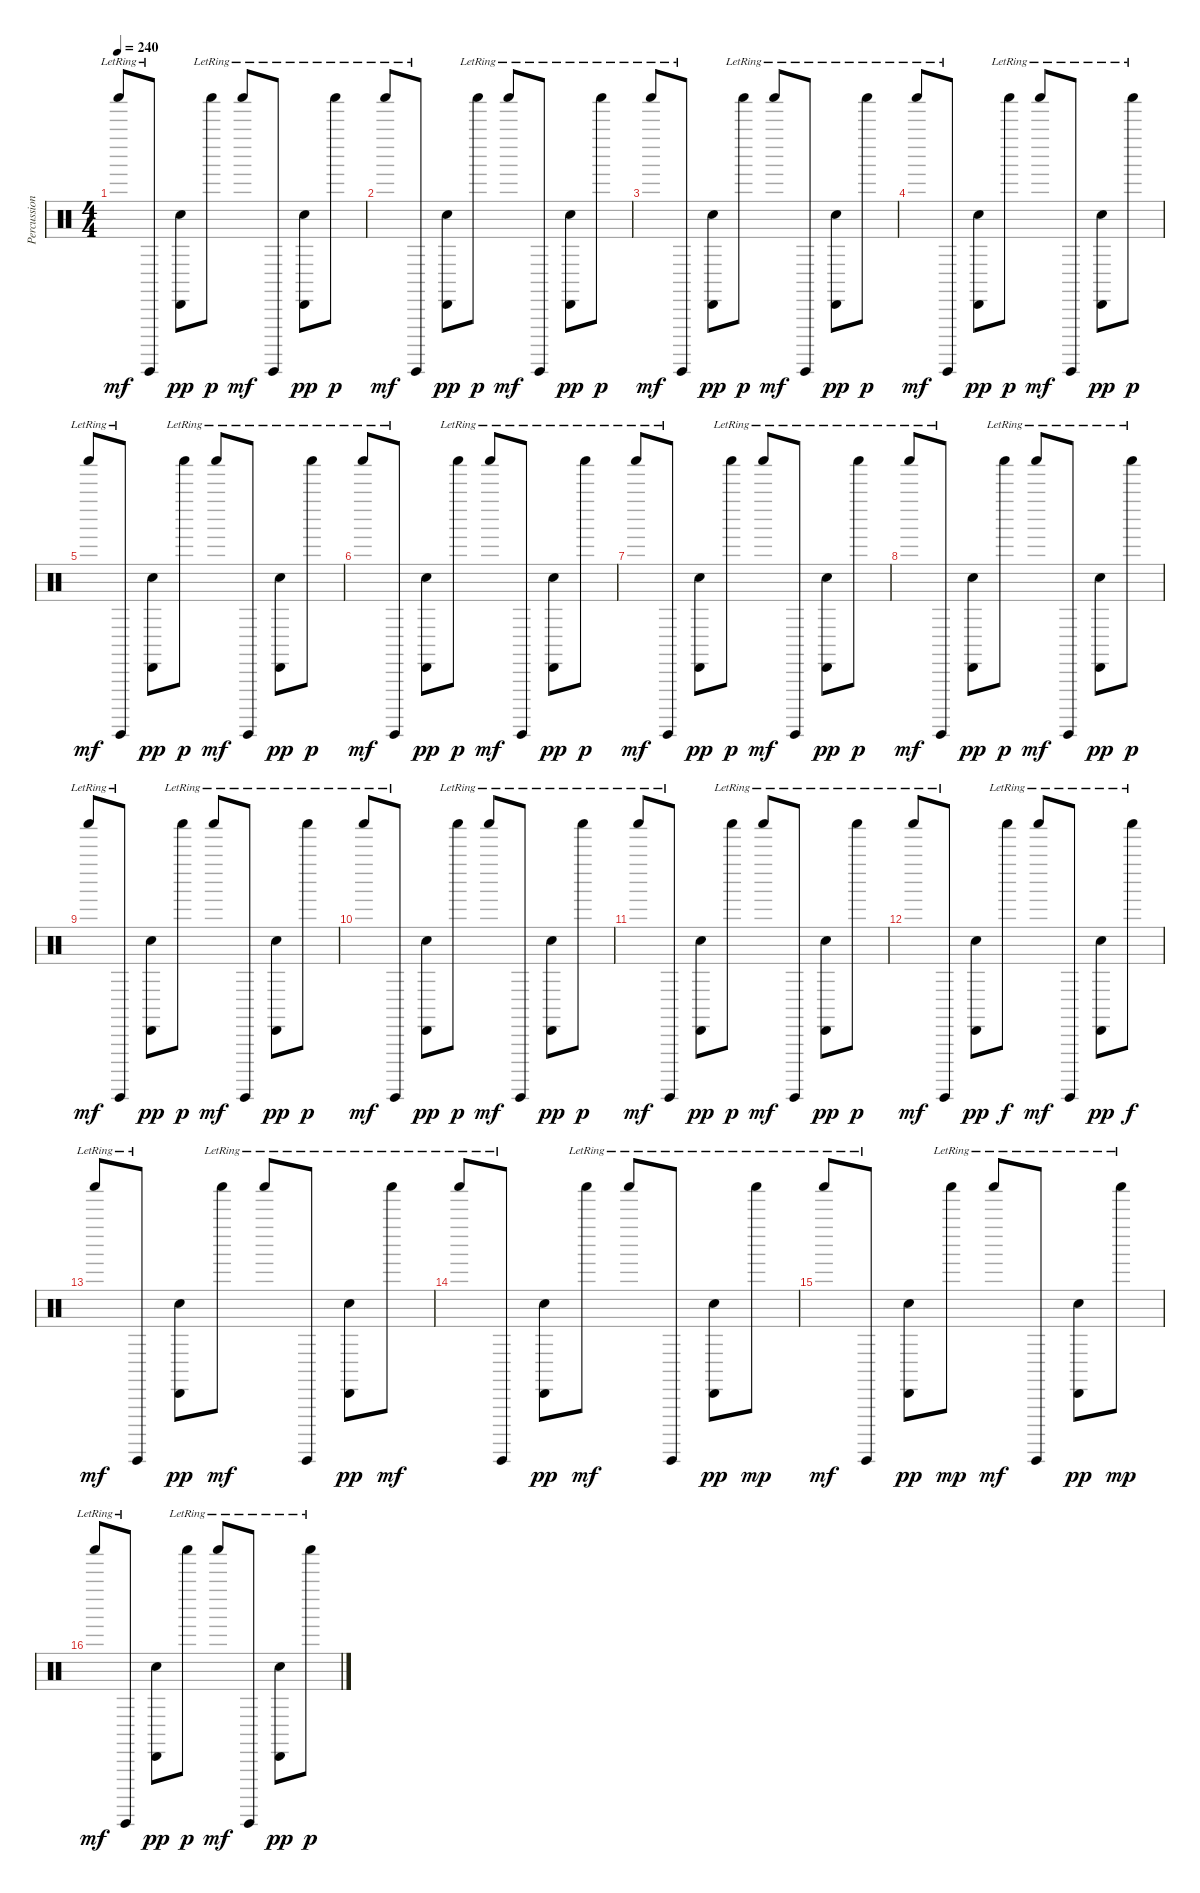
\track ("Percussions" "Percussion") {instrument percussion}
\staff {score}
\articulation defaults
\ts (4 4)
\tempo 240
\clef neutral
\ks c "Shaker (hit)"{lr}.8{dy mf} "Guiro (hit)"{lr}.8
("Cabasa (hit)" "Snare (hit) 2").8{dy pp} "Shaker (hit)"{lr}.8{dy p} "Shaker (hit)"{lr}.8{dy mf} "Guiro (hit)"{lr}.8 ("Cabasa (hit)"{lr} "Snare (hit) 2").8{dy pp} "Shaker (hit)"{lr}.8{dy p} |
"Shaker (hit)"{lr}.8{dy mf} "Guiro (hit)"{lr}.8 ("Cabasa (hit)" "Snare (hit) 2").8{dy pp} "Shaker (hit)"{lr}.8{dy p} "Shaker (hit)"{lr}.8{dy mf} "Guiro (hit)"{lr}.8 ("Cabasa (hit)"{lr} "Snare (hit) 2").8{dy pp} "Shaker (hit)"{lr}.8{dy p} |
"Shaker (hit)"{lr}.8{dy mf} "Guiro (hit)"{lr}.8 ("Cabasa (hit)" "Snare (hit) 2").8{dy pp} "Shaker (hit)"{lr}.8{dy p} "Shaker (hit)"{lr}.8{dy mf} "Guiro (hit)"{lr}.8 ("Cabasa (hit)"{lr} "Snare (hit) 2").8{dy pp} "Shaker (hit)"{lr}.8{dy p} |
"Shaker (hit)"{lr}.8{dy mf} "Guiro (hit)"{lr}.8 ("Cabasa (hit)" "Snare (hit) 2").8{dy pp} "Shaker (hit)"{lr}.8{dy p} "Shaker (hit)"{lr}.8{dy mf} "Guiro (hit)"{lr}.8 ("Cabasa (hit)"{lr} "Snare (hit) 2").8{dy pp} "Shaker (hit)"{lr}.8{dy p} |
"Shaker (hit)"{lr}.8{dy mf} "Guiro (hit)"{lr}.8 ("Cabasa (hit)" "Snare (hit) 2").8{dy pp} "Shaker (hit)"{lr}.8{dy p} "Shaker (hit)"{lr}.8{dy mf} "Guiro (hit)"{lr}.8 ("Cabasa (hit)"{lr} "Snare (hit) 2").8{dy pp} "Shaker (hit)"{lr}.8{dy p} |
"Shaker (hit)"{lr}.8{dy mf} "Guiro (hit)"{lr}.8 ("Cabasa (hit)" "Snare (hit) 2").8{dy pp} "Shaker (hit)"{lr}.8{dy p} "Shaker (hit)"{lr}.8{dy mf} "Guiro (hit)"{lr}.8 ("Cabasa (hit)"{lr} "Snare (hit) 2").8{dy pp} "Shaker (hit)"{lr}.8{dy p} |
"Shaker (hit)"{lr}.8{dy mf} "Guiro (hit)"{lr}.8 ("Cabasa (hit)" "Snare (hit) 2").8{dy pp} "Shaker (hit)"{lr}.8{dy p} "Shaker (hit)"{lr}.8{dy mf} "Guiro (hit)"{lr}.8 ("Cabasa (hit)"{lr} "Snare (hit) 2").8{dy pp} "Shaker (hit)"{lr}.8{dy p} |
"Shaker (hit)"{lr}.8{dy mf} "Guiro (hit)"{lr}.8 ("Cabasa (hit)" "Snare (hit) 2").8{dy pp} "Shaker (hit)"{lr}.8{dy p} "Shaker (hit)"{lr}.8{dy mf} "Guiro (hit)"{lr}.8 ("Cabasa (hit)"{lr} "Snare (hit) 2").8{dy pp} "Shaker (hit)"{lr}.8{dy p} |
"Shaker (hit)"{lr}.8{dy mf} "Guiro (hit)"{lr}.8 ("Cabasa (hit)" "Snare (hit) 2").8{dy pp} "Shaker (hit)"{lr}.8{dy p} "Shaker (hit)"{lr}.8{dy mf} "Guiro (hit)"{lr}.8 ("Cabasa (hit)"{lr} "Snare (hit) 2").8{dy pp} "Shaker (hit)"{lr}.8{dy p} |
"Shaker (hit)"{lr}.8{dy mf} "Guiro (hit)"{lr}.8 ("Cabasa (hit)" "Snare (hit) 2").8{dy pp} "Shaker (hit)"{lr}.8{dy p} "Shaker (hit)"{lr}.8{dy mf} "Guiro (hit)"{lr}.8 ("Cabasa (hit)"{lr} "Snare (hit) 2").8{dy pp} "Shaker (hit)"{lr}.8{dy p} |
"Shaker (hit)"{lr}.8{dy mf} "Guiro (hit)"{lr}.8 ("Cabasa (hit)" "Snare (hit) 2").8{dy pp} "Shaker (hit)"{lr}.8{dy p} "Shaker (hit)"{lr}.8{dy mf} "Guiro (hit)"{lr}.8 ("Cabasa (hit)"{lr} "Snare (hit) 2").8{dy pp} "Shaker (hit)"{lr}.8{dy p} |
"Shaker (hit)"{lr}.8{dy mf} "Guiro (hit)"{lr}.8 ("Cabasa (hit)" "Snare (hit) 2").8{dy pp} "Shaker (hit)"{lr}.8{dy f} "Shaker (hit)"{lr}.8{dy mf} "Guiro (hit)"{lr}.8 ("Cabasa (hit)"{lr} "Snare (hit) 2").8{dy pp} "Shaker (hit)"{lr}.8{dy f} |
"Shaker (hit)"{lr}.8{dy mf} "Guiro (hit)"{lr}.8 ("Cabasa (hit)" "Snare (hit) 2").8{dy pp} "Shaker (hit)"{lr}.8{dy mf} "Shaker (hit)"{lr}.8 "Guiro (hit)"{lr}.8 ("Cabasa (hit)"{lr} "Snare (hit) 2").8{dy pp} "Shaker (hit)"{lr}.8{dy mf} |
"Shaker (hit)"{lr}.8 "Guiro (hit)"{lr}.8 ("Cabasa (hit)" "Snare (hit) 2").8{dy pp} "Shaker (hit)"{lr}.8{dy mf} "Shaker (hit)"{lr}.8 "Guiro (hit)"{lr}.8 ("Cabasa (hit)"{lr} "Snare (hit) 2").8{dy pp} "Shaker (hit)"{lr}.8{dy mp} |
"Shaker (hit)"{lr}.8{dy mf} "Guiro (hit)"{lr}.8 ("Cabasa (hit)" "Snare (hit) 2").8{dy pp} "Shaker (hit)"{lr}.8{dy mp} "Shaker (hit)"{lr}.8{dy mf} "Guiro (hit)"{lr}.8 ("Cabasa (hit)"{lr} "Snare (hit) 2").8{dy pp} "Shaker (hit)"{lr}.8{dy mp} |
"Shaker (hit)"{lr}.8{dy mf} "Guiro (hit)"{lr}.8 ("Cabasa (hit)" "Snare (hit) 2").8{dy pp} "Shaker (hit)"{lr}.8{dy p} "Shaker (hit)"{lr}.8{dy mf} "Guiro (hit)"{lr}.8 ("Cabasa (hit)"{lr} "Snare (hit) 2").8{dy pp} "Shaker (hit)"{lr}.8{dy p}
